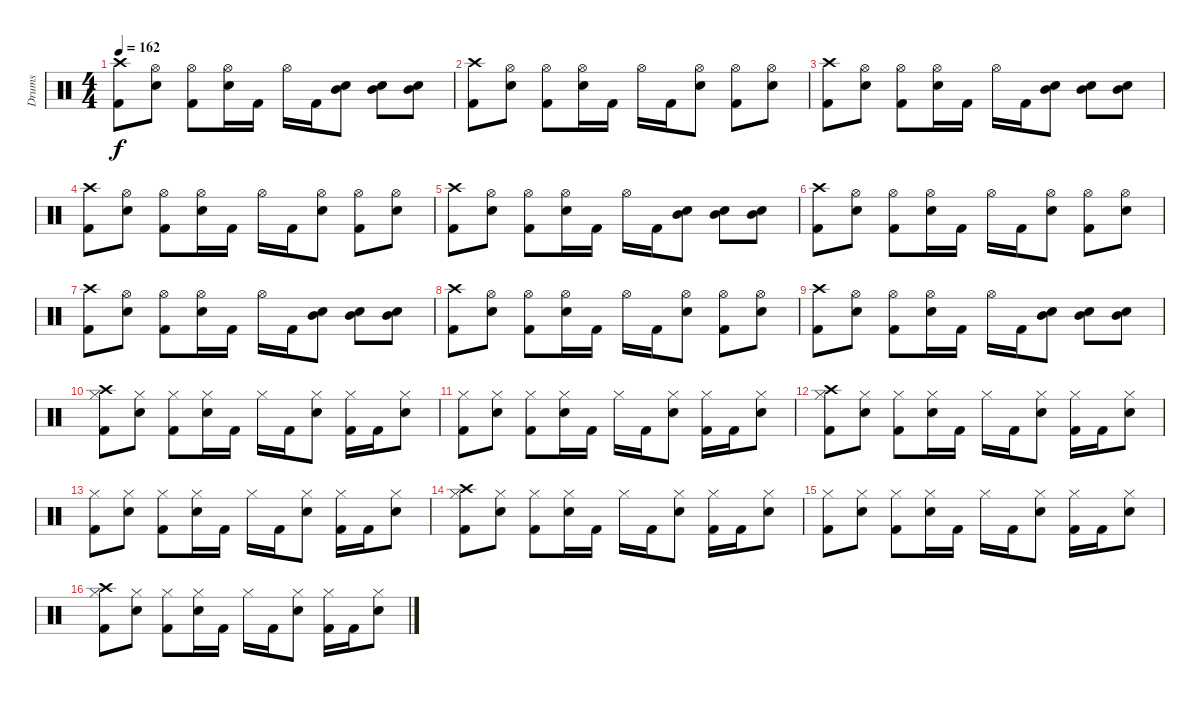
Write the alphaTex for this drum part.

\track ("Drums" "Drums") {instrument percussion}
\staff {score}
\articulation defaults
\ts (4 4)
\tempo 162
\clef neutral
\ks c
("Kick (hit) 2" "Crash high (hit)").8{dy f} ("Snare (hit) 2" "Hi-Hat (open)").8 ("Kick (hit) 2" "Hi-Hat (open)").8 ("Snare (hit) 2" "Hi-Hat (open)").16 "Kick (hit) 2".16 "Hi-Hat (open)".16 "Kick (hit) 2".16 ("Snare (hit) 2" "Mid Tom (hit)").8 ("Snare (hit) 2" "Mid Tom (hit)").8 ("Snare (hit) 2" "Mid Tom (hit)").8 |
("Kick (hit) 2" "Crash high (hit)").8 ("Snare (hit) 2" "Hi-Hat (open)").8 ("Kick (hit) 2" "Hi-Hat (open)").8 ("Snare (hit) 2" "Hi-Hat (open)").16 "Kick (hit) 2".16 "Hi-Hat (open)".16 "Kick (hit) 2".16 ("Snare (hit) 2" "Hi-Hat (open)").8 ("Kick (hit) 2" "Hi-Hat (open)").8 ("Snare (hit) 2" "Hi-Hat (open)").8 |
("Kick (hit) 2" "Crash high (hit)").8 ("Snare (hit) 2" "Hi-Hat (open)").8 ("Kick (hit) 2" "Hi-Hat (open)").8 ("Snare (hit) 2" "Hi-Hat (open)").16 "Kick (hit) 2".16 "Hi-Hat (open)".16 "Kick (hit) 2".16 ("Snare (hit) 2" "Mid Tom (hit)").8 ("Snare (hit) 2" "Mid Tom (hit)").8 ("Snare (hit) 2" "Mid Tom (hit)").8 |
("Kick (hit) 2" "Crash high (hit)").8 ("Snare (hit) 2" "Hi-Hat (open)").8 ("Kick (hit) 2" "Hi-Hat (open)").8 ("Snare (hit) 2" "Hi-Hat (open)").16 "Kick (hit) 2".16 "Hi-Hat (open)".16 "Kick (hit) 2".16 ("Snare (hit) 2" "Hi-Hat (open)").8 ("Kick (hit) 2" "Hi-Hat (open)").8 ("Snare (hit) 2" "Hi-Hat (open)").8 |
("Kick (hit) 2" "Crash high (hit)").8 ("Snare (hit) 2" "Hi-Hat (open)").8 ("Kick (hit) 2" "Hi-Hat (open)").8 ("Snare (hit) 2" "Hi-Hat (open)").16 "Kick (hit) 2".16 "Hi-Hat (open)".16 "Kick (hit) 2".16 ("Snare (hit) 2" "Mid Tom (hit)").8 ("Snare (hit) 2" "Mid Tom (hit)").8 ("Snare (hit) 2" "Mid Tom (hit)").8 |
("Kick (hit) 2" "Crash high (hit)").8 ("Snare (hit) 2" "Hi-Hat (open)").8 ("Kick (hit) 2" "Hi-Hat (open)").8 ("Snare (hit) 2" "Hi-Hat (open)").16 "Kick (hit) 2".16 "Hi-Hat (open)".16 "Kick (hit) 2".16 ("Snare (hit) 2" "Hi-Hat (open)").8 ("Kick (hit) 2" "Hi-Hat (open)").8 ("Snare (hit) 2" "Hi-Hat (open)").8 |
("Kick (hit) 2" "Crash high (hit)").8 ("Snare (hit) 2" "Hi-Hat (open)").8 ("Kick (hit) 2" "Hi-Hat (open)").8 ("Snare (hit) 2" "Hi-Hat (open)").16 "Kick (hit) 2".16 "Hi-Hat (open)".16 "Kick (hit) 2".16 ("Snare (hit) 2" "Mid Tom (hit)").8 ("Snare (hit) 2" "Mid Tom (hit)").8 ("Snare (hit) 2" "Mid Tom (hit)").8 |
("Kick (hit) 2" "Crash high (hit)").8 ("Snare (hit) 2" "Hi-Hat (open)").8 ("Kick (hit) 2" "Hi-Hat (open)").8 ("Snare (hit) 2" "Hi-Hat (open)").16 "Kick (hit) 2".16 "Hi-Hat (open)".16 "Kick (hit) 2".16 ("Snare (hit) 2" "Hi-Hat (open)").8 ("Kick (hit) 2" "Hi-Hat (open)").8 ("Snare (hit) 2" "Hi-Hat (open)").8 |
("Kick (hit) 2" "Crash high (hit)").8 ("Snare (hit) 2" "Hi-Hat (open)").8 ("Kick (hit) 2" "Hi-Hat (open)").8 ("Snare (hit) 2" "Hi-Hat (open)").16 "Kick (hit) 2".16 "Hi-Hat (open)".16 "Kick (hit) 2".16 ("Snare (hit) 2" "Mid Tom (hit)").8 ("Snare (hit) 2" "Mid Tom (hit)").8 ("Snare (hit) 2" "Mid Tom (hit)").8 |
("Kick (hit) 2" "Hi-Hat (closed)" "Crash high (hit)").8 ("Snare (hit) 2" "Hi-Hat (closed)").8 ("Kick (hit) 2" "Hi-Hat (closed)").8 ("Snare (hit) 2" "Hi-Hat (closed)").16 "Kick (hit) 2".16 "Hi-Hat (closed)".16 "Kick (hit) 2".16 ("Snare (hit) 2" "Hi-Hat (closed)").8 ("Kick (hit) 2" "Hi-Hat (closed)").16 "Kick (hit) 2".16 ("Snare (hit) 2" "Hi-Hat (closed)").8 |
("Kick (hit) 2" "Hi-Hat (closed)").8 ("Snare (hit) 2" "Hi-Hat (closed)").8 ("Kick (hit) 2" "Hi-Hat (closed)").8 ("Snare (hit) 2" "Hi-Hat (closed)").16 "Kick (hit) 2".16 "Hi-Hat (closed)".16 "Kick (hit) 2".16 ("Snare (hit) 2" "Hi-Hat (closed)").8 ("Kick (hit) 2" "Hi-Hat (closed)").16 "Kick (hit) 2".16 ("Snare (hit) 2" "Hi-Hat (closed)").8 |
("Kick (hit) 2" "Hi-Hat (closed)" "Crash high (hit)").8 ("Snare (hit) 2" "Hi-Hat (closed)").8 ("Kick (hit) 2" "Hi-Hat (closed)").8 ("Snare (hit) 2" "Hi-Hat (closed)").16 "Kick (hit) 2".16 "Hi-Hat (closed)".16 "Kick (hit) 2".16 ("Snare (hit) 2" "Hi-Hat (closed)").8 ("Kick (hit) 2" "Hi-Hat (closed)").16 "Kick (hit) 2".16 ("Snare (hit) 2" "Hi-Hat (closed)").8 |
("Kick (hit) 2" "Hi-Hat (closed)").8 ("Snare (hit) 2" "Hi-Hat (closed)").8 ("Kick (hit) 2" "Hi-Hat (closed)").8 ("Snare (hit) 2" "Hi-Hat (closed)").16 "Kick (hit) 2".16 "Hi-Hat (closed)".16 "Kick (hit) 2".16 ("Snare (hit) 2" "Hi-Hat (closed)").8 ("Kick (hit) 2" "Hi-Hat (closed)").16 "Kick (hit) 2".16 ("Snare (hit) 2" "Hi-Hat (closed)").8 |
("Kick (hit) 2" "Hi-Hat (closed)" "Crash high (hit)").8 ("Snare (hit) 2" "Hi-Hat (closed)").8 ("Kick (hit) 2" "Hi-Hat (closed)").8 ("Snare (hit) 2" "Hi-Hat (closed)").16 "Kick (hit) 2".16 "Hi-Hat (closed)".16 "Kick (hit) 2".16 ("Snare (hit) 2" "Hi-Hat (closed)").8 ("Kick (hit) 2" "Hi-Hat (closed)").16 "Kick (hit) 2".16 ("Snare (hit) 2" "Hi-Hat (closed)").8 |
("Kick (hit) 2" "Hi-Hat (closed)").8 ("Snare (hit) 2" "Hi-Hat (closed)").8 ("Kick (hit) 2" "Hi-Hat (closed)").8 ("Snare (hit) 2" "Hi-Hat (closed)").16 "Kick (hit) 2".16 "Hi-Hat (closed)".16 "Kick (hit) 2".16 ("Snare (hit) 2" "Hi-Hat (closed)").8 ("Kick (hit) 2" "Hi-Hat (closed)").16 "Kick (hit) 2".16 ("Snare (hit) 2" "Hi-Hat (closed)").8 |
("Kick (hit) 2" "Hi-Hat (closed)" "Crash high (hit)").8 ("Snare (hit) 2" "Hi-Hat (closed)").8 ("Kick (hit) 2" "Hi-Hat (closed)").8 ("Snare (hit) 2" "Hi-Hat (closed)").16 "Kick (hit) 2".16 "Hi-Hat (closed)".16 "Kick (hit) 2".16 ("Snare (hit) 2" "Hi-Hat (closed)").8 ("Kick (hit) 2" "Hi-Hat (closed)").16 "Kick (hit) 2".16 ("Snare (hit) 2" "Hi-Hat (closed)").8
